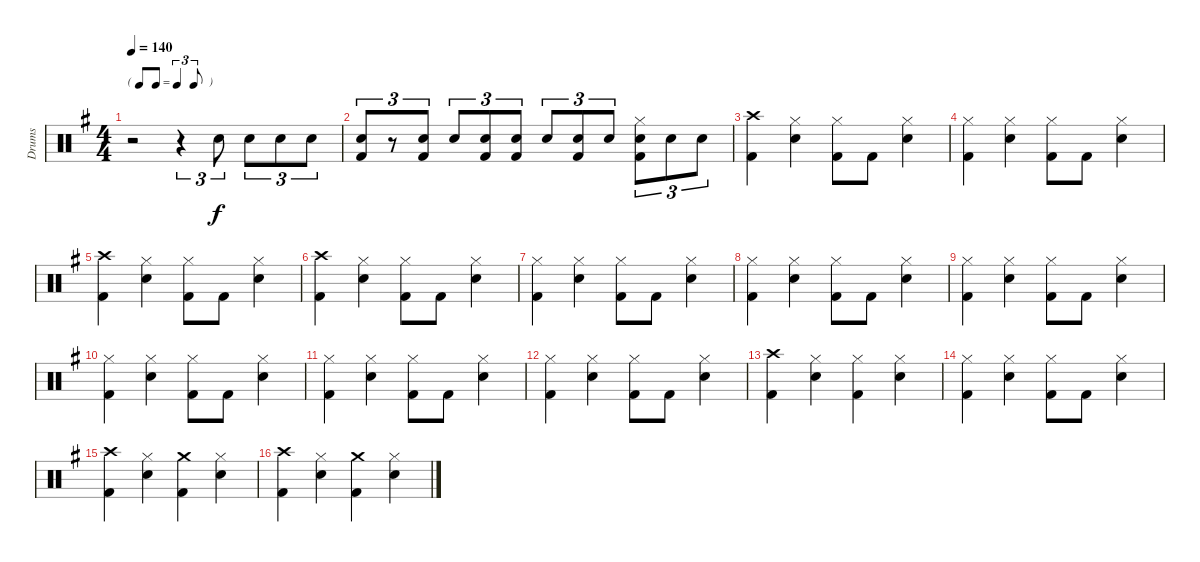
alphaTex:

\track ("Drums" "Drums") {instrument percussion}
\staff {score}
\articulation defaults
\ts (4 4)
\tf triplet8th
\tempo 140
\clef neutral
\ks eminor
r.2{dy f} r.4{tu (3 2)} "Snare (hit) 2".8{tu (3 2)} "Snare (hit) 2".8{tu (3 2)} "Snare (hit) 2".8{tu (3 2)} "Snare (hit) 2".8{tu (3 2)} |
("Kick (hit) 2" "Snare (hit) 2").8{tu (3 2)} r.8{tu (3 2)} ("Kick (hit) 2" "Snare (hit) 2").8{tu (3 2)} "Snare (hit) 2".8{tu (3 2)} ("Kick (hit) 2" "Snare (hit) 2").8{tu (3 2)} ("Kick (hit) 2" "Snare (hit) 2").8{tu (3 2)} "Snare (hit) 2".8{tu (3 2)} ("Kick (hit) 2" "Snare (hit) 2").8{tu (3 2)} "Snare (hit) 2".8{tu (3 2)} ("Kick (hit) 2" "Snare (hit) 2" "Hi-Hat (closed)").8{tu (3 2)} "Snare (hit) 2".8{tu (3 2)} "Snare (hit) 2".8{tu (3 2)} |
("Kick (hit) 2" "Crash high (hit)").4 ("Snare (hit) 2" "Hi-Hat (closed)").4 ("Kick (hit) 2" "Hi-Hat (closed)").8 "Kick (hit) 2".8 ("Snare (hit) 2" "Hi-Hat (closed)").4 |
("Kick (hit) 2" "Hi-Hat (closed)").4 ("Snare (hit) 2" "Hi-Hat (closed)").4 ("Kick (hit) 2" "Hi-Hat (closed)").8 "Kick (hit) 2".8 ("Snare (hit) 2" "Hi-Hat (closed)").4 |
("Kick (hit) 2" "Crash high (hit)").4 ("Snare (hit) 2" "Hi-Hat (closed)").4 ("Kick (hit) 2" "Hi-Hat (closed)").8 "Kick (hit) 2".8 ("Snare (hit) 2" "Hi-Hat (closed)").4 |
("Kick (hit) 2" "Crash high (hit)").4 ("Snare (hit) 2" "Hi-Hat (closed)").4 ("Kick (hit) 2" "Hi-Hat (closed)").8 "Kick (hit) 2".8 ("Snare (hit) 2" "Hi-Hat (closed)").4 |
("Kick (hit) 2" "Hi-Hat (closed)").4 ("Snare (hit) 2" "Hi-Hat (closed)").4 ("Kick (hit) 2" "Hi-Hat (closed)").8 "Kick (hit) 2".8 ("Snare (hit) 2" "Hi-Hat (closed)").4 |
("Kick (hit) 2" "Hi-Hat (closed)").4 ("Snare (hit) 2" "Hi-Hat (closed)").4 ("Kick (hit) 2" "Hi-Hat (closed)").8 "Kick (hit) 2".8 ("Snare (hit) 2" "Hi-Hat (closed)").4 |
("Kick (hit) 2" "Hi-Hat (closed)").4 ("Snare (hit) 2" "Hi-Hat (closed)").4 ("Kick (hit) 2" "Hi-Hat (closed)").8 "Kick (hit) 2".8 ("Snare (hit) 2" "Hi-Hat (closed)").4 |
("Kick (hit) 2" "Hi-Hat (closed)").4 ("Snare (hit) 2" "Hi-Hat (closed)").4 ("Kick (hit) 2" "Hi-Hat (closed)").8 "Kick (hit) 2".8 ("Snare (hit) 2" "Hi-Hat (closed)").4 |
("Kick (hit) 2" "Hi-Hat (closed)").4 ("Snare (hit) 2" "Hi-Hat (closed)").4 ("Kick (hit) 2" "Hi-Hat (closed)").8 "Kick (hit) 2".8 ("Snare (hit) 2" "Hi-Hat (closed)").4 |
("Kick (hit) 2" "Hi-Hat (closed)").4 ("Snare (hit) 2" "Hi-Hat (closed)").4 ("Kick (hit) 2" "Hi-Hat (closed)").8 "Kick (hit) 2".8 ("Snare (hit) 2" "Hi-Hat (closed)").4 |
("Kick (hit) 2" "Crash high (hit)").4 ("Snare (hit) 2" "Hi-Hat (closed)").4 ("Kick (hit) 2" "Hi-Hat (closed)").4 ("Snare (hit) 2" "Hi-Hat (closed)").4 |
("Kick (hit) 2" "Hi-Hat (closed)").4 ("Snare (hit) 2" "Hi-Hat (closed)").4 ("Kick (hit) 2" "Hi-Hat (closed)").8 "Kick (hit) 2".8 ("Snare (hit) 2" "Hi-Hat (closed)").4 |
("Kick (hit) 2" "Crash high (hit)").4 ("Snare (hit) 2" "Hi-Hat (closed)").4 ("Kick (hit) 2" "Crash medium (hit)").4 ("Snare (hit) 2" "Hi-Hat (closed)").4 |
("Kick (hit) 2" "Crash high (hit)").4 ("Snare (hit) 2" "Hi-Hat (closed)").4 ("Kick (hit) 2" "Crash medium (hit)").4 ("Snare (hit) 2" "Hi-Hat (closed)").4
